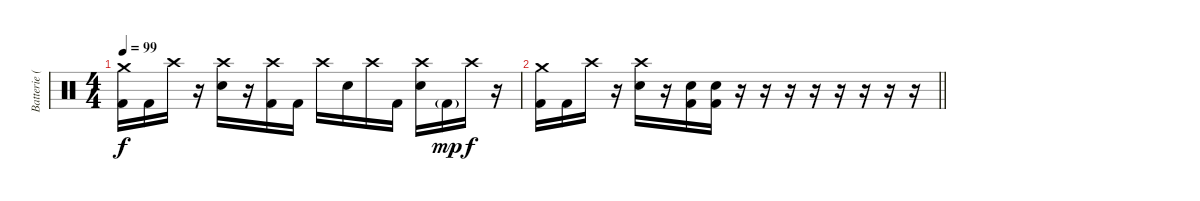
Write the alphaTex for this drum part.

\track ("Batterie (John)" "Batterie (") {instrument percussion}
\staff {score}
\articulation defaults
\ts (4 4)
\tempo 99
\clef neutral
\ks c
("Crash medium (hit)" "Kick (hit) 2").16{dy f} "Kick (hit) 2".16 "Crash high (hit)".16 r.16 ("Crash high (hit)" "Electric Snare (hit)").16 r.16 ("Crash high (hit)" "Kick (hit) 2").16 "Kick (hit) 2".16 "Crash high (hit)".16 "Electric Snare (hit)".16 "Crash high (hit)".16 "Kick (hit) 2".16 ("Crash high (hit)" "Electric Snare (hit)").16 "Kick (hit) 2"{g}.16{dy mp} "Crash high (hit)".16{dy f} r.16 |
\barLineRight lightlight
("Crash medium (hit)" "Kick (hit) 2").16 "Kick (hit) 2".16 "Crash high (hit)".16 r.16 ("Crash high (hit)" "Electric Snare (hit)").16 r.16 ("Electric Snare (hit)" "Kick (hit) 2").16 ("Electric Snare (hit)" "Kick (hit) 2").16 r.16 r.16 r.16 r.16 r.16 r.16 r.16 r.16
